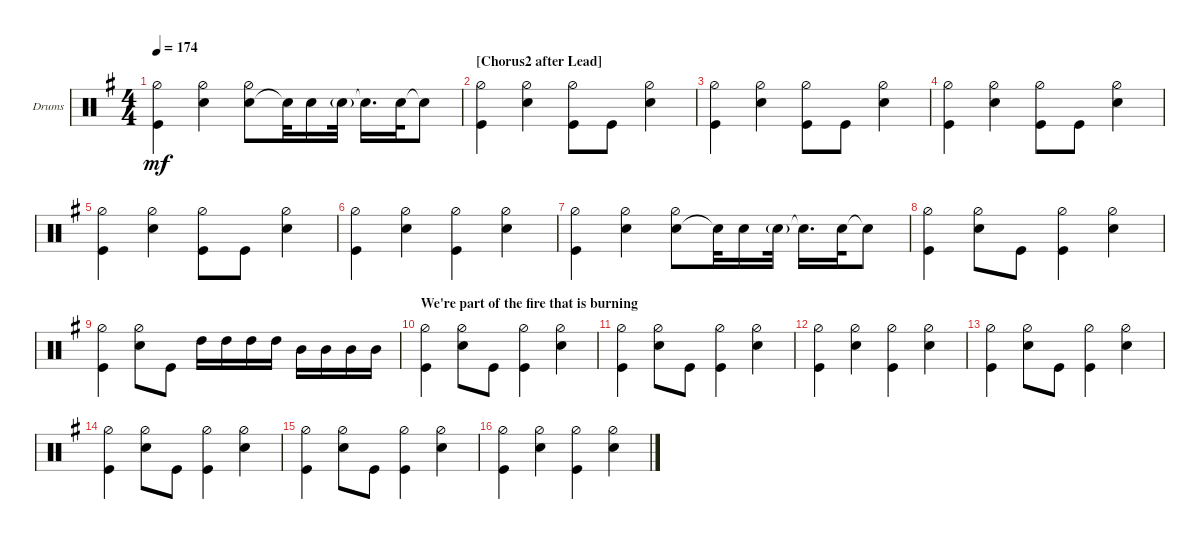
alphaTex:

\bracketExtendMode groupsimilarinstruments
\firstSystemTrackNameOrientation horizontal
\otherSystemsTrackNameOrientation horizontal
\track ("Drumkit" "Drums") {instrument percussion}
\staff {score}
\articulation defaults
\ts (4 4)
\tempo 174
\clef neutral
\scale
0.333333
\ks eminor
("Kick (hit)" "Hi-Hat (half)").4{dy mf} ("Snare (hit) 2" "Hi-Hat (half)").4 ("Snare (hit) 2" "Hi-Hat (half)").8 "Snare (hit) 2"{t}.32 "Snare (hit) 2".16 "Snare (hit) 2"{g}.32 "Snare (hit) 2"{t}.16{d} "Snare (hit) 2".32 "Snare (hit) 2"{t}.8 |
\section ("" "[Chorus2 after Lead]")
\scale
0.333333 ("Kick (hit)" "Hi-Hat (half)").4 ("Snare (hit) 2" "Hi-Hat (half)").4 ("Kick (hit)" "Hi-Hat (half)").8 "Kick (hit)".8 ("Snare (hit) 2" "Hi-Hat (half)").4 |
\scale
0.333333 ("Kick (hit)" "Hi-Hat (half)").4 ("Snare (hit) 2" "Hi-Hat (half)").4 ("Kick (hit)" "Hi-Hat (half)").8 "Kick (hit)".8 ("Snare (hit) 2" "Hi-Hat (half)").4 |
\scale
0.333333 ("Kick (hit)" "Hi-Hat (half)").4 ("Snare (hit) 2" "Hi-Hat (half)").4 ("Kick (hit)" "Hi-Hat (half)").8 "Kick (hit)".8 ("Snare (hit) 2" "Hi-Hat (half)").4 |
\scale
0.333333 ("Kick (hit)" "Hi-Hat (half)").4 ("Snare (hit) 2" "Hi-Hat (half)").4 ("Kick (hit)" "Hi-Hat (half)").8 "Kick (hit)".8 ("Snare (hit) 2" "Hi-Hat (half)").4 |
\scale
0.333333 ("Kick (hit)" "Hi-Hat (half)").4 ("Snare (hit) 2" "Hi-Hat (half)").4 ("Kick (hit)" "Hi-Hat (half)").4 ("Snare (hit) 2" "Hi-Hat (half)").4 |
\scale
0.333333 ("Kick (hit)" "Hi-Hat (half)").4 ("Snare (hit) 2" "Hi-Hat (half)").4 ("Snare (hit) 2" "Hi-Hat (half)").8 "Snare (hit) 2"{t}.32 "Snare (hit) 2".16 "Snare (hit) 2"{g}.32 "Snare (hit) 2"{t}.16{d} "Snare (hit) 2".32 "Snare (hit) 2"{t}.8 |
\scale
0.333333 ("Kick (hit)" "Hi-Hat (half)").4 ("Snare (hit) 2" "Hi-Hat (half)").8 "Kick (hit)".8 ("Kick (hit)" "Hi-Hat (half)").4 ("Snare (hit) 2" "Hi-Hat (half)").4 |
\scale
0.333333 ("Kick (hit)" "Hi-Hat (half)").4 ("Snare (hit) 2" "Hi-Hat (half)").8 "Kick (hit)".8 "High Tom (hit)".16 "High Tom (hit)".16 "High Tom (hit)".16 "High Tom (hit)".16 "Mid Tom (hit)".16 "Mid Tom (hit)".16 "Mid Tom (hit)".16 "Mid Tom (hit)".16 |
\section ("" "We're part of the fire that is burning")
\scale
0.333333 ("Kick (hit)" "Hi-Hat (half)").4 ("Snare (hit) 2" "Hi-Hat (half)").8 "Kick (hit)".8 ("Kick (hit)" "Hi-Hat (half)").4 ("Snare (hit) 2" "Hi-Hat (half)").4 |
\scale
0.333333 ("Kick (hit)" "Hi-Hat (half)").4 ("Snare (hit) 2" "Hi-Hat (half)").8 "Kick (hit)".8 ("Kick (hit)" "Hi-Hat (half)").4 ("Snare (hit) 2" "Hi-Hat (half)").4 |
\scale
0.333333 ("Kick (hit)" "Hi-Hat (half)").4 ("Snare (hit) 2" "Hi-Hat (half)").4 ("Kick (hit)" "Hi-Hat (half)").4 ("Snare (hit) 2" "Hi-Hat (half)").4 |
\scale
0.333333 ("Kick (hit)" "Hi-Hat (half)").4 ("Snare (hit) 2" "Hi-Hat (half)").8 "Kick (hit)".8 ("Kick (hit)" "Hi-Hat (half)").4 ("Snare (hit) 2" "Hi-Hat (half)").4 |
\scale
0.333333 ("Kick (hit)" "Hi-Hat (half)").4 ("Snare (hit) 2" "Hi-Hat (half)").8 "Kick (hit)".8 ("Kick (hit)" "Hi-Hat (half)").4 ("Snare (hit) 2" "Hi-Hat (half)").4 |
\scale
0.333333 ("Kick (hit)" "Hi-Hat (half)").4 ("Snare (hit) 2" "Hi-Hat (half)").8 "Kick (hit)".8 ("Kick (hit)" "Hi-Hat (half)").4 ("Snare (hit) 2" "Hi-Hat (half)").4 |
\scale
0.333333 ("Kick (hit)" "Hi-Hat (half)").4 ("Snare (hit) 2" "Hi-Hat (half)").4 ("Kick (hit)" "Hi-Hat (half)").4 ("Snare (hit) 2" "Hi-Hat (half)").4
